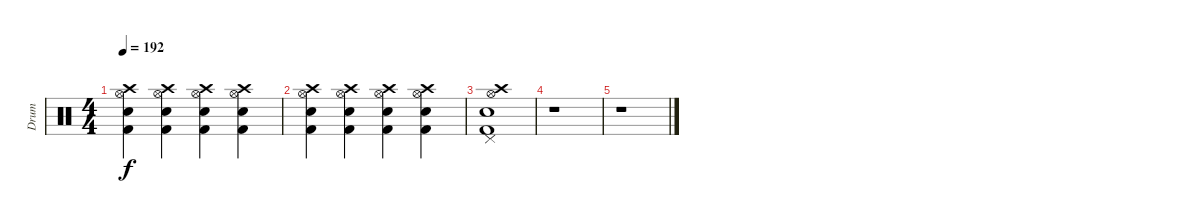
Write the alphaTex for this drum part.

\track ("Drum" "Drum") {instrument percussion}
\staff {score}
\articulation defaults
\ts (4 4)
\tempo 192
\clef neutral
\ks c
("Electric Snare (hit)" "Crash high (hit)" "Kick (hit) 2" "Hi-Hat (open)").4{dy f} ("Electric Snare (hit)" "Crash high (hit)" "Kick (hit) 2" "Hi-Hat (open)").4 ("Electric Snare (hit)" "Crash high (hit)" "Kick (hit) 2" "Hi-Hat (open)").4 ("Electric Snare (hit)" "Crash high (hit)" "Kick (hit) 2" "Hi-Hat (open)").4 |
("Electric Snare (hit)" "Crash high (hit)" "Kick (hit) 2" "Hi-Hat (open)").4 ("Electric Snare (hit)" "Crash high (hit)" "Kick (hit) 2" "Hi-Hat (open)").4 ("Electric Snare (hit)" "Crash high (hit)" "Kick (hit) 2" "Hi-Hat (open)").4 ("Electric Snare (hit)" "Crash high (hit)" "Kick (hit) 2" "Hi-Hat (open)").4 |
("Crash high (hit)" "Hi-Hat (open)" "Pedal Hi-Hat (hit)" "Electric Snare (hit)" "Kick (hit) 2").1 |
r.1 |
r.1
